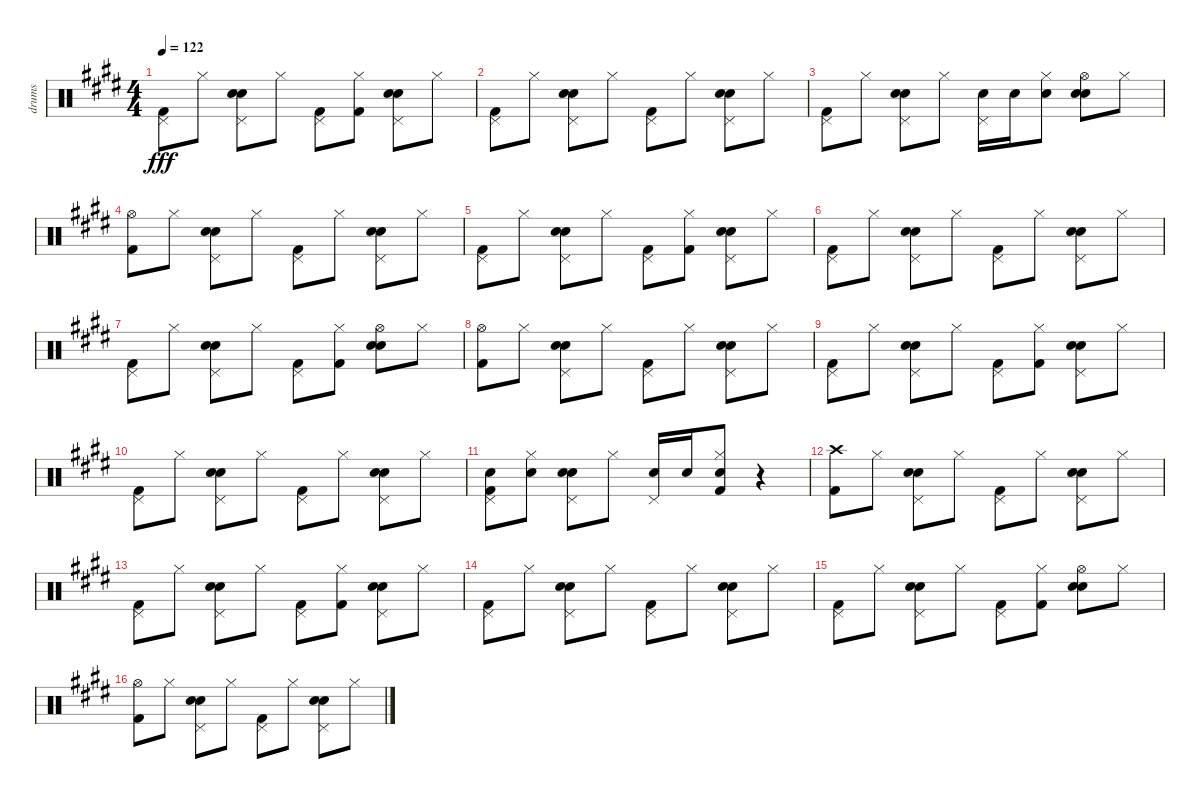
\track ("drums" "drums") {instrument percussion}
\staff {score}
\articulation defaults
\ts (4 4)
\tempo 122
\clef neutral
\ks e
("Pedal Hi-Hat (hit)" "Kick (hit) 2").8{dy fff} "Hi-Hat (closed)".8 ("Hand Clap (hit)" "Pedal Hi-Hat (hit)" "Snare (hit) 2").8 "Hi-Hat (closed)".8 ("Pedal Hi-Hat (hit)" "Kick (hit) 2").8 ("Hi-Hat (closed)" "Kick (hit) 2").8 ("Hand Clap (hit)" "Pedal Hi-Hat (hit)" "Snare (hit) 2").8 "Hi-Hat (closed)".8 |
("Pedal Hi-Hat (hit)" "Kick (hit) 2").8 "Hi-Hat (closed)".8 ("Hand Clap (hit)" "Pedal Hi-Hat (hit)" "Snare (hit) 2").8 "Hi-Hat (closed)".8 ("Pedal Hi-Hat (hit)" "Kick (hit) 2").8 "Hi-Hat (closed)".8 ("Hand Clap (hit)" "Pedal Hi-Hat (hit)" "Snare (hit) 2").8 "Hi-Hat (closed)".8 |
("Pedal Hi-Hat (hit)" "Kick (hit) 2").8 "Hi-Hat (closed)".8 ("Hand Clap (hit)" "Pedal Hi-Hat (hit)" "Snare (hit) 2").8 "Hi-Hat (closed)".8 ("Snare (hit) 2" "Pedal Hi-Hat (hit)").16 "Snare (hit) 2".16 ("Snare (hit) 2" "Hi-Hat (closed)").8 ("Hand Clap (hit)" "Hi-Hat (open)" "Snare (hit) 2").8 "Hi-Hat (closed)".8 |
("Hi-Hat (open)" "Kick (hit) 2").8 "Hi-Hat (closed)".8 ("Hand Clap (hit)" "Pedal Hi-Hat (hit)" "Snare (hit) 2").8 "Hi-Hat (closed)".8 ("Pedal Hi-Hat (hit)" "Kick (hit) 2").8 "Hi-Hat (closed)".8 ("Hand Clap (hit)" "Pedal Hi-Hat (hit)" "Snare (hit) 2").8 "Hi-Hat (closed)".8 |
("Pedal Hi-Hat (hit)" "Kick (hit) 2").8 "Hi-Hat (closed)".8 ("Hand Clap (hit)" "Pedal Hi-Hat (hit)" "Snare (hit) 2").8 "Hi-Hat (closed)".8 ("Pedal Hi-Hat (hit)" "Kick (hit) 2").8 ("Hi-Hat (closed)" "Kick (hit) 2").8 ("Hand Clap (hit)" "Pedal Hi-Hat (hit)" "Snare (hit) 2").8 "Hi-Hat (closed)".8 |
("Pedal Hi-Hat (hit)" "Kick (hit) 2").8 "Hi-Hat (closed)".8 ("Hand Clap (hit)" "Pedal Hi-Hat (hit)" "Snare (hit) 2").8 "Hi-Hat (closed)".8 ("Pedal Hi-Hat (hit)" "Kick (hit) 2").8 "Hi-Hat (closed)".8 ("Hand Clap (hit)" "Pedal Hi-Hat (hit)" "Snare (hit) 2").8 "Hi-Hat (closed)".8 |
("Pedal Hi-Hat (hit)" "Kick (hit) 2").8 "Hi-Hat (closed)".8 ("Hand Clap (hit)" "Pedal Hi-Hat (hit)" "Snare (hit) 2").8 "Hi-Hat (closed)".8 ("Kick (hit) 2" "Pedal Hi-Hat (hit)").8 ("Kick (hit) 2" "Hi-Hat (closed)").8 ("Hand Clap (hit)" "Hi-Hat (open)" "Snare (hit) 2").8 "Hi-Hat (closed)".8 |
("Hi-Hat (open)" "Kick (hit) 2").8 "Hi-Hat (closed)".8 ("Hand Clap (hit)" "Pedal Hi-Hat (hit)" "Snare (hit) 2").8 "Hi-Hat (closed)".8 ("Pedal Hi-Hat (hit)" "Kick (hit) 2").8 "Hi-Hat (closed)".8 ("Hand Clap (hit)" "Pedal Hi-Hat (hit)" "Snare (hit) 2").8 "Hi-Hat (closed)".8 |
("Pedal Hi-Hat (hit)" "Kick (hit) 2").8 "Hi-Hat (closed)".8 ("Hand Clap (hit)" "Pedal Hi-Hat (hit)" "Snare (hit) 2").8 "Hi-Hat (closed)".8 ("Pedal Hi-Hat (hit)" "Kick (hit) 2").8 ("Hi-Hat (closed)" "Kick (hit) 2").8 ("Hand Clap (hit)" "Pedal Hi-Hat (hit)" "Snare (hit) 2").8 "Hi-Hat (closed)".8 |
("Pedal Hi-Hat (hit)" "Kick (hit) 2").8 "Hi-Hat (closed)".8 ("Hand Clap (hit)" "Pedal Hi-Hat (hit)" "Snare (hit) 2").8 "Hi-Hat (closed)".8 ("Pedal Hi-Hat (hit)" "Kick (hit) 2").8 "Hi-Hat (closed)".8 ("Hand Clap (hit)" "Pedal Hi-Hat (hit)" "Snare (hit) 2").8 "Hi-Hat (closed)".8 |
("Snare (hit) 2" "Kick (hit) 2" "Pedal Hi-Hat (hit)").8 ("Snare (hit) 2" "Hi-Hat (closed)").8 ("Hand Clap (hit)" "Pedal Hi-Hat (hit)" "Snare (hit) 2").8 "Hi-Hat (closed)".8 ("Snare (hit) 2" "Pedal Hi-Hat (hit)").16 "Snare (hit) 2".16 ("Kick (hit) 2" "Snare (hit) 2" "Hi-Hat (closed)").8 r.4 |
("Crash high (hit)" "Kick (hit) 2").8 "Hi-Hat (closed)".8 ("Hand Clap (hit)" "Pedal Hi-Hat (hit)" "Snare (hit) 2").8 "Hi-Hat (closed)".8 ("Pedal Hi-Hat (hit)" "Kick (hit) 2").8 "Hi-Hat (closed)".8 ("Hand Clap (hit)" "Pedal Hi-Hat (hit)" "Snare (hit) 2").8 "Hi-Hat (closed)".8 |
("Pedal Hi-Hat (hit)" "Kick (hit) 2").8 "Hi-Hat (closed)".8 ("Hand Clap (hit)" "Pedal Hi-Hat (hit)" "Snare (hit) 2").8 "Hi-Hat (closed)".8 ("Pedal Hi-Hat (hit)" "Kick (hit) 2").8 ("Hi-Hat (closed)" "Kick (hit) 2").8 ("Hand Clap (hit)" "Pedal Hi-Hat (hit)" "Snare (hit) 2").8 "Hi-Hat (closed)".8 |
("Pedal Hi-Hat (hit)" "Kick (hit) 2").8 "Hi-Hat (closed)".8 ("Hand Clap (hit)" "Pedal Hi-Hat (hit)" "Snare (hit) 2").8 "Hi-Hat (closed)".8 ("Pedal Hi-Hat (hit)" "Kick (hit) 2").8 "Hi-Hat (closed)".8 ("Hand Clap (hit)" "Pedal Hi-Hat (hit)" "Snare (hit) 2").8 "Hi-Hat (closed)".8 |
("Pedal Hi-Hat (hit)" "Kick (hit) 2").8 "Hi-Hat (closed)".8 ("Hand Clap (hit)" "Pedal Hi-Hat (hit)" "Snare (hit) 2").8 "Hi-Hat (closed)".8 ("Kick (hit) 2" "Pedal Hi-Hat (hit)").8 ("Kick (hit) 2" "Hi-Hat (closed)").8 ("Hand Clap (hit)" "Hi-Hat (open)" "Snare (hit) 2").8 "Hi-Hat (closed)".8 |
("Hi-Hat (open)" "Kick (hit) 2").8 "Hi-Hat (closed)".8 ("Hand Clap (hit)" "Pedal Hi-Hat (hit)" "Snare (hit) 2").8 "Hi-Hat (closed)".8 ("Pedal Hi-Hat (hit)" "Kick (hit) 2").8 "Hi-Hat (closed)".8 ("Hand Clap (hit)" "Pedal Hi-Hat (hit)" "Snare (hit) 2").8 "Hi-Hat (closed)".8
